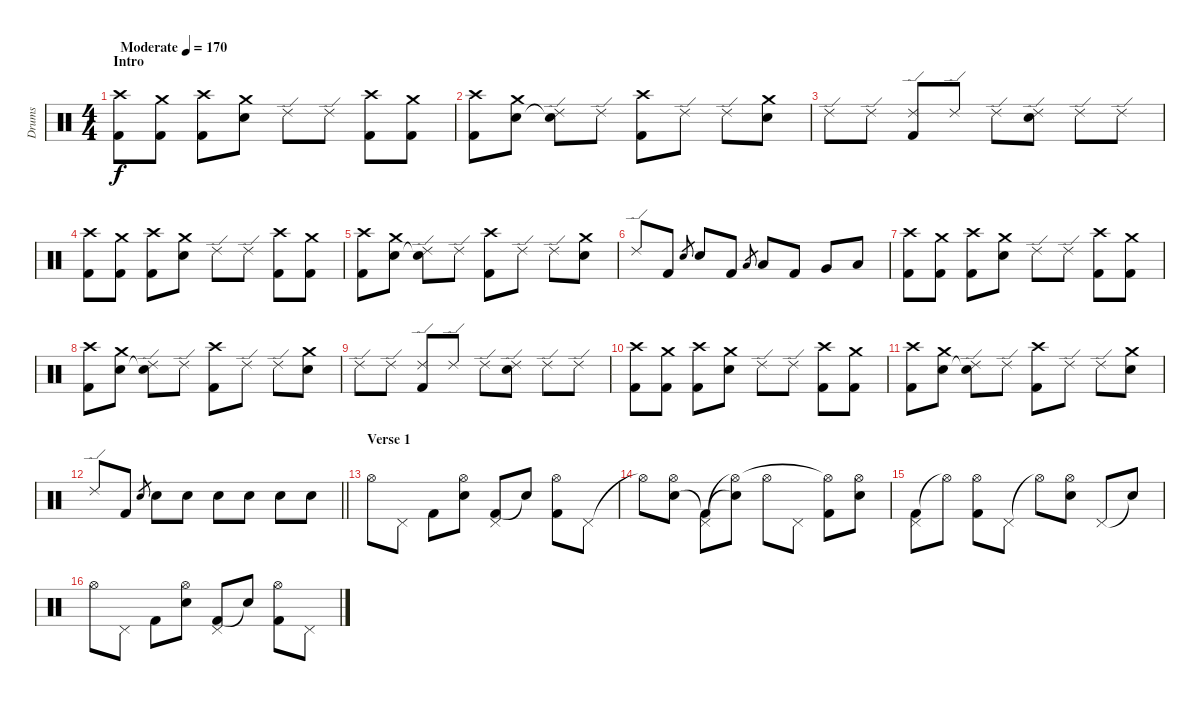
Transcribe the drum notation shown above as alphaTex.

\track ("Drums" "Drums") {instrument percussion}
\staff {score}
\articulation defaults
\ts (4 4)
\section ("" "Intro")
\tempo (170 "Moderate")
\clef neutral
\ks c
("Kick (hit) 2" "Crash high (hit)").8{dy f} ("Kick (hit) 2" "Crash medium (hit)").8 ("Kick (hit) 2" "Crash high (hit)").8 ("Electric Snare (hit)" "Crash medium (hit)").8 "Ride (edge) 2".8 "Ride (edge) 2".8 ("Kick (hit) 2" "Crash high (hit)").8 ("Kick (hit) 2" "Crash medium (hit)").8 |
("Kick (hit) 2" "Crash high (hit)").8 ("Electric Snare (hit)" "Crash medium (hit)").8 ("Snare (hit)"{t} "Ride (edge) 2").8 "Ride (edge) 2".8 ("Kick (hit) 2" "Crash high (hit)").8 "Ride (edge) 2".8 "Ride (edge) 2".8 ("Electric Snare (hit)" "Crash medium (hit)").8 |
"Ride (edge) 2".8 "Ride (edge) 2".8 ("Kick (hit) 2" "Ride (edge) 2").8 "Ride (edge) 2".8 "Ride (edge) 2".8 ("Electric Snare (hit)" "Ride (edge) 2").8 "Ride (edge) 2".8 "Ride (edge) 2".8 |
("Kick (hit) 2" "Crash high (hit)").8 ("Kick (hit) 2" "Crash medium (hit)").8 ("Kick (hit) 2" "Crash high (hit)").8 ("Electric Snare (hit)" "Crash medium (hit)").8 "Ride (edge) 2".8 "Ride (edge) 2".8 ("Kick (hit) 2" "Crash high (hit)").8 ("Kick (hit) 2" "Crash medium (hit)").8 |
("Kick (hit) 2" "Crash high (hit)").8 ("Electric Snare (hit)" "Crash medium (hit)").8 ("Snare (hit)"{t} "Ride (edge) 2").8 "Ride (edge) 2".8 ("Kick (hit) 2" "Crash high (hit)").8 "Ride (edge) 2".8 "Ride (edge) 2".8 ("Electric Snare (hit)" "Crash medium (hit)").8 |
"Ride (edge) 2".8 "Kick (hit) 2".8 "Electric Snare (hit)".8{gr} "Electric Snare (hit)".8 "Kick (hit) 2".8 "Low Tom (hit)".8{gr} "Low Tom (hit)".8 "Kick (hit) 2".8 "Very Low Tom (hit)".8 "Low Floor Tom (hit)".8 |
("Kick (hit) 2" "Crash high (hit)").8 ("Kick (hit) 2" "Crash medium (hit)").8 ("Kick (hit) 2" "Crash high (hit)").8 ("Electric Snare (hit)" "Crash medium (hit)").8 "Ride (edge) 2".8 "Ride (edge) 2".8 ("Kick (hit) 2" "Crash high (hit)").8 ("Kick (hit) 2" "Crash medium (hit)").8 |
("Kick (hit) 2" "Crash high (hit)").8 ("Electric Snare (hit)" "Crash medium (hit)").8 ("Snare (hit)"{t} "Ride (edge) 2").8 "Ride (edge) 2".8 ("Kick (hit) 2" "Crash high (hit)").8 "Ride (edge) 2".8 "Ride (edge) 2".8 ("Electric Snare (hit)" "Crash medium (hit)").8 |
"Ride (edge) 2".8 "Ride (edge) 2".8 ("Kick (hit) 2" "Ride (edge) 2").8 "Ride (edge) 2".8 "Ride (edge) 2".8 ("Electric Snare (hit)" "Ride (edge) 2").8 "Ride (edge) 2".8 "Ride (edge) 2".8 |
("Kick (hit) 2" "Crash high (hit)").8 ("Kick (hit) 2" "Crash medium (hit)").8 ("Kick (hit) 2" "Crash high (hit)").8 ("Electric Snare (hit)" "Crash medium (hit)").8 "Ride (edge) 2".8 "Ride (edge) 2".8 ("Kick (hit) 2" "Crash high (hit)").8 ("Kick (hit) 2" "Crash medium (hit)").8 |
("Kick (hit) 2" "Crash high (hit)").8 ("Electric Snare (hit)" "Crash medium (hit)").8 ("Snare (hit)"{t} "Ride (edge) 2").8 "Ride (edge) 2".8 ("Kick (hit) 2" "Crash high (hit)").8 "Ride (edge) 2".8 "Ride (edge) 2".8 ("Electric Snare (hit)" "Crash medium (hit)").8 |
\barLineRight lightlight "Ride (edge) 2".8 "Kick (hit) 2".8 "Electric Snare (hit)".8{gr} "Electric Snare (hit)".8 "Electric Snare (hit)".8 "Electric Snare (hit)".8 "Electric Snare (hit)".8 "Electric Snare (hit)".8 "Electric Snare (hit)".8
|
\section ("" "Verse 1")
"Hi-Hat (open)".8 "Pedal Hi-Hat (hit)".8 "Kick (hit) 2".8 ("Electric Snare (hit)" "Hi-Hat (open)").8 ("Kick (hit) 2" "Pedal Hi-Hat (hit)").8 "Snare (hit)"{t}.8 ("Kick (hit) 2" "Hi-Hat (open)").8 "Pedal Hi-Hat (hit)".8 |
"Hi-Hat (open)"{t}.8 ("Electric Snare (hit)" "Hi-Hat (open)").8 ("Kick (hit) 2"{t} "Pedal Hi-Hat (hit)").8 ("Electric Snare (hit)"{t} "Hi-Hat (open)"{t}).8 "Hi-Hat (open)".8 "Pedal Hi-Hat (hit)".8 ("Kick (hit) 2" "Hi-Hat (open)"{t}).8 ("Electric Snare (hit)" "Hi-Hat (open)").8 |
("Kick (hit) 2" "Pedal Hi-Hat (hit)").8 "Hi-Hat (open)"{t}.8 ("Kick (hit) 2" "Hi-Hat (open)").8 "Pedal Hi-Hat (hit)".8 "Hi-Hat (open)"{t}.8 ("Electric Snare (hit)" "Hi-Hat (open)").8 "Pedal Hi-Hat (hit)".8 "Snare (hit)"{t}.8 |
"Hi-Hat (open)".8 "Pedal Hi-Hat (hit)".8 "Kick (hit) 2".8 ("Electric Snare (hit)" "Hi-Hat (open)").8 ("Kick (hit) 2" "Pedal Hi-Hat (hit)").8 "Snare (hit)"{t}.8 ("Kick (hit) 2" "Hi-Hat (open)").8 "Pedal Hi-Hat (hit)".8
